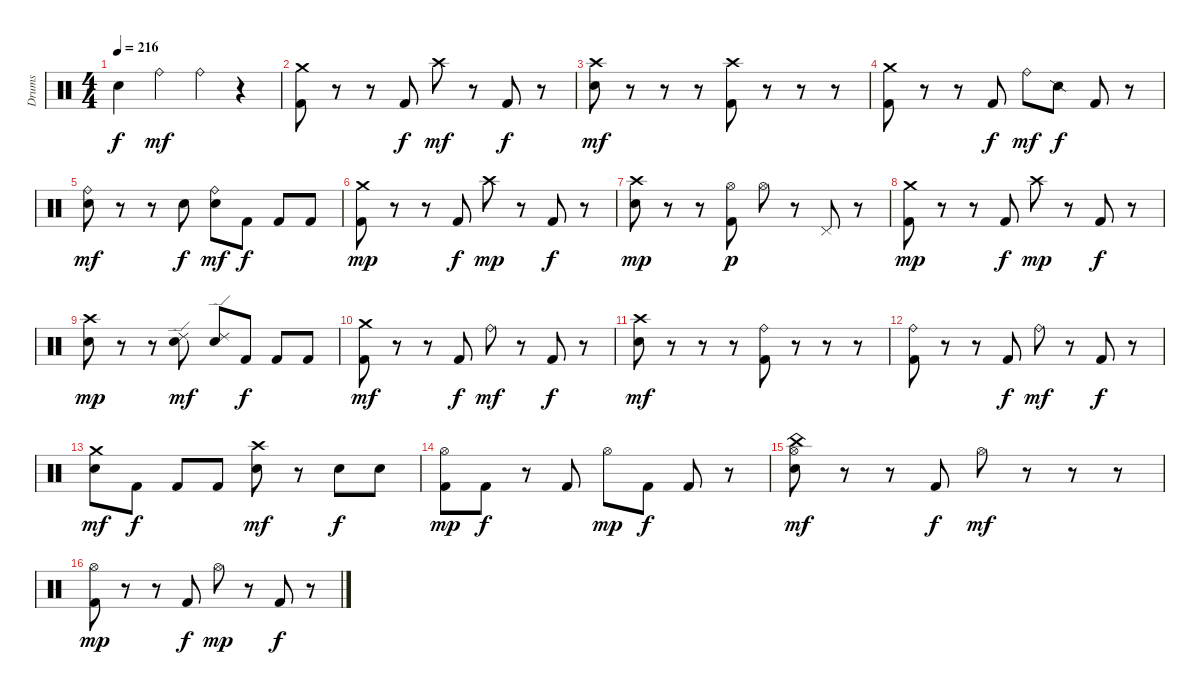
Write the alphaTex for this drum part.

\track ("Drums" "Drums") {instrument percussion}
\staff {score}
\articulation defaults
\ts (4 4)
\tempo 216
\clef neutral
\ks c "Snare (hit) 2".4{dy f} "Ride (bell)".4{dy mf} "Ride (bell)".4
r.4 |
("Kick (hit) 2" "Crash medium (hit)").8 r.8 r.8 "Kick (hit) 2".8{dy f} "Crash high (hit)".8{dy mf} r.8 "Kick (hit) 2".8{dy f} r.8 |
("Snare (hit) 2" "Crash high (hit)").8{dy mf} r.8 r.8 r.8 ("Kick (hit) 2" "Crash high (hit)").8 r.8 r.8 r.8 |
("Kick (hit) 2" "Crash medium (hit)").8 r.8 r.8 "Kick (hit) 2".8{dy f} "Ride (bell)".8{dy mf} "Snare (side stick) 2".8{dy f} "Kick (hit) 2".8 r.8 |
("Snare (hit) 2" "Ride (bell)").8{dy mf} r.8 r.8 "Snare (hit) 2".8{dy f} ("Snare (hit) 2" "Ride (bell)").8{dy mf} "Kick (hit) 2".8{dy f} "Kick (hit) 2".8 "Kick (hit) 2".8 |
("Kick (hit) 2" "Crash medium (hit)").8{dy mp} r.8 r.8 "Kick (hit) 2".8{dy f} "Crash high (hit)".8{dy mp} r.8 "Kick (hit) 2".8{dy f} r.8 |
("Snare (hit) 2" "Crash high (hit)").8{dy mp} r.8 r.8 ("Kick (hit) 2" "Hi-Hat (open)").8{dy p} "Hi-Hat (open)".8 r.8 "Pedal Hi-Hat (hit)".8 r.8 |
("Kick (hit) 2" "Crash medium (hit)").8{dy mp} r.8 r.8 "Kick (hit) 2".8{dy f} "Crash high (hit)".8{dy mp} r.8 "Kick (hit) 2".8{dy f} r.8 |
("Snare (hit) 2" "Crash high (hit)").8{dy mp} r.8 r.8 ("Snare (hit) 2" "Ride (edge) 2").8{dy mf} ("Snare (hit) 2" "Ride (edge) 2").8 "Kick (hit) 2".8{dy f} "Kick (hit) 2".8 "Kick (hit) 2".8 |
("Kick (hit) 2" "Crash medium (hit)").8{dy mf} r.8 r.8 "Kick (hit) 2".8{dy f} "Ride (bell)".8{dy mf} r.8 "Kick (hit) 2".8{dy f} r.8 |
("Snare (hit) 2" "Crash high (hit)").8{dy mf} r.8 r.8 r.8 ("Kick (hit) 2" "Ride (bell)").8 r.8 r.8 r.8 |
("Kick (hit) 2" "Ride (bell)").8 r.8 r.8 "Kick (hit) 2".8{dy f} "Ride (bell)".8{dy mf} r.8 "Kick (hit) 2".8{dy f} r.8 |
("Snare (hit) 2" "Crash medium (hit)").8{dy mf} "Kick (hit) 2".8{dy f} "Kick (hit) 2".8 "Kick (hit) 2".8 ("Snare (hit) 2" "Crash high (hit)").8{dy mf} r.8 "Snare (hit) 2".8{dy f} "Snare (hit) 2".8 |
("Kick (hit) 2" "Hi-Hat (open)").8{dy mp} "Kick (hit) 2".8{dy f} r.8 "Kick (hit) 2".8 "Hi-Hat (open)".8{dy mp} "Kick (hit) 2".8{dy f} "Kick (hit) 2".8 r.8 |
("Snare (hit) 2" "Hi-Hat (open)" "China (hit)").8{dy mf} r.8 r.8 "Kick (hit) 2".8{dy f} "Hi-Hat (open)".8{dy mf} r.8 r.8 r.8 |
("Kick (hit) 2" "Hi-Hat (open)").8{dy mp} r.8 r.8 "Kick (hit) 2".8{dy f} "Hi-Hat (open)".8{dy mp} r.8 "Kick (hit) 2".8{dy f} r.8
